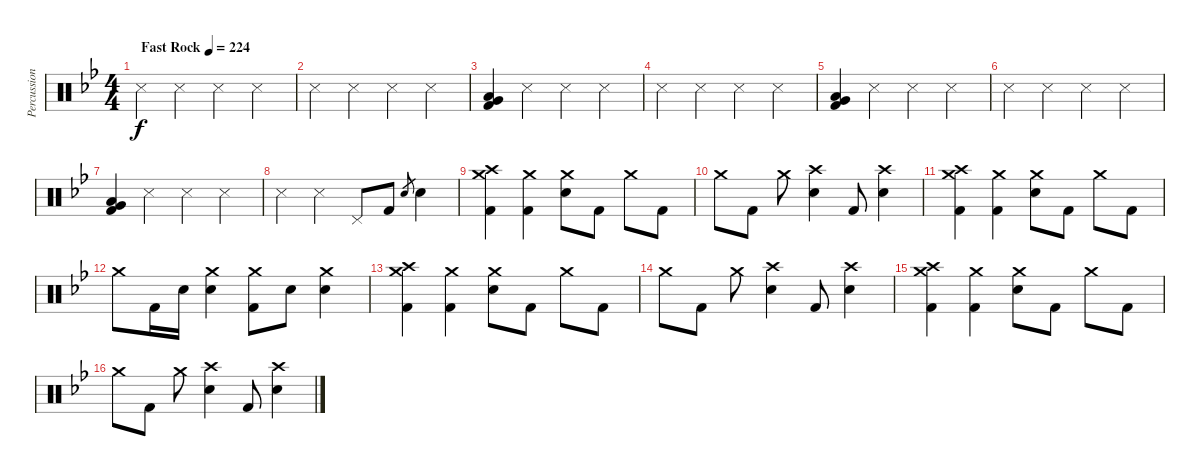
\track ("Percussion" "Percussion") {instrument percussion}
\staff {score}
\articulation defaults
\ts (4 4)
\tempo (224 "Fast Rock")
\clef neutral
\ks bb "Snare (side stick) 3".4{dy f volume 8} "Snare (side stick) 3".4 "Snare (side stick) 3".4 "Snare (side stick) 3".4
|
"Snare (side stick) 3".4 "Snare (side stick) 3".4 "Snare (side stick) 3".4 "Snare (side stick) 3".4 |
("Very Low Tom (hit)" "Low Floor Tom (hit)" "Kick (hit) 2").4{volume 12} "Snare (side stick) 3".4{volume 8} "Snare (side stick) 3".4 "Snare (side stick) 3".4 |
"Snare (side stick) 3".4 "Snare (side stick) 3".4 "Snare (side stick) 3".4 "Snare (side stick) 3".4 |
("Very Low Tom (hit)" "Low Floor Tom (hit)" "Kick (hit) 2").4{volume 12} "Snare (side stick) 3".4{volume 8} "Snare (side stick) 3".4 "Snare (side stick) 3".4 |
"Snare (side stick) 3".4 "Snare (side stick) 3".4 "Snare (side stick) 3".4 "Snare (side stick) 3".4 |
("Very Low Tom (hit)" "Low Floor Tom (hit)" "Kick (hit) 2").4{volume 12} "Snare (side stick) 3".4{volume 8} "Snare (side stick) 3".4 "Snare (side stick) 3".4 |
"Snare (side stick) 3".4 "Snare (side stick) 3".4 "Pedal Hi-Hat (hit)".8{volume 14} "Kick (hit) 2".8 "Electric Snare (hit)".8{gr} "Electric Snare (hit)".4 |
("Crash medium (hit)" "Crash high (hit)" "Kick (hit) 2").4 ("Crash medium (hit)" "Kick (hit) 2").4 ("Crash medium (hit)" "Electric Snare (hit)").8 "Kick (hit) 2".8 "Crash medium (hit)".8 "Kick (hit) 2".8 |
"Crash medium (hit)".8 "Kick (hit) 2".8 "Crash medium (hit)".8 ("Crash high (hit)" "Electric Snare (hit)").4 "Kick (hit) 2".8 ("Crash high (hit)" "Electric Snare (hit)").4 |
("Crash medium (hit)" "Crash high (hit)" "Kick (hit) 2").4 ("Crash medium (hit)" "Kick (hit) 2").4 ("Crash medium (hit)" "Electric Snare (hit)").8 "Kick (hit) 2".8 "Crash medium (hit)".8 "Kick (hit) 2".8 |
"Crash medium (hit)".8 "Kick (hit) 2".16 "Electric Snare (hit)".16 ("Crash medium (hit)" "Electric Snare (hit)").4 ("Crash medium (hit)" "Kick (hit) 2").8 "Electric Snare (hit)".8 ("Crash medium (hit)" "Electric Snare (hit)").4 |
("Crash medium (hit)" "Crash high (hit)" "Kick (hit) 2").4 ("Crash medium (hit)" "Kick (hit) 2").4 ("Crash medium (hit)" "Electric Snare (hit)").8 "Kick (hit) 2".8 "Crash medium (hit)".8 "Kick (hit) 2".8 |
"Crash medium (hit)".8 "Kick (hit) 2".8 "Crash medium (hit)".8 ("Crash high (hit)" "Electric Snare (hit)").4 "Kick (hit) 2".8 ("Crash high (hit)" "Electric Snare (hit)").4 |
("Crash medium (hit)" "Crash high (hit)" "Kick (hit) 2").4 ("Crash medium (hit)" "Kick (hit) 2").4 ("Crash medium (hit)" "Electric Snare (hit)").8 "Kick (hit) 2".8 "Crash medium (hit)".8 "Kick (hit) 2".8 |
"Crash medium (hit)".8 "Kick (hit) 2".8 "Crash medium (hit)".8 ("Crash high (hit)" "Electric Snare (hit)").4 "Kick (hit) 2".8 ("Crash high (hit)" "Electric Snare (hit)").4
